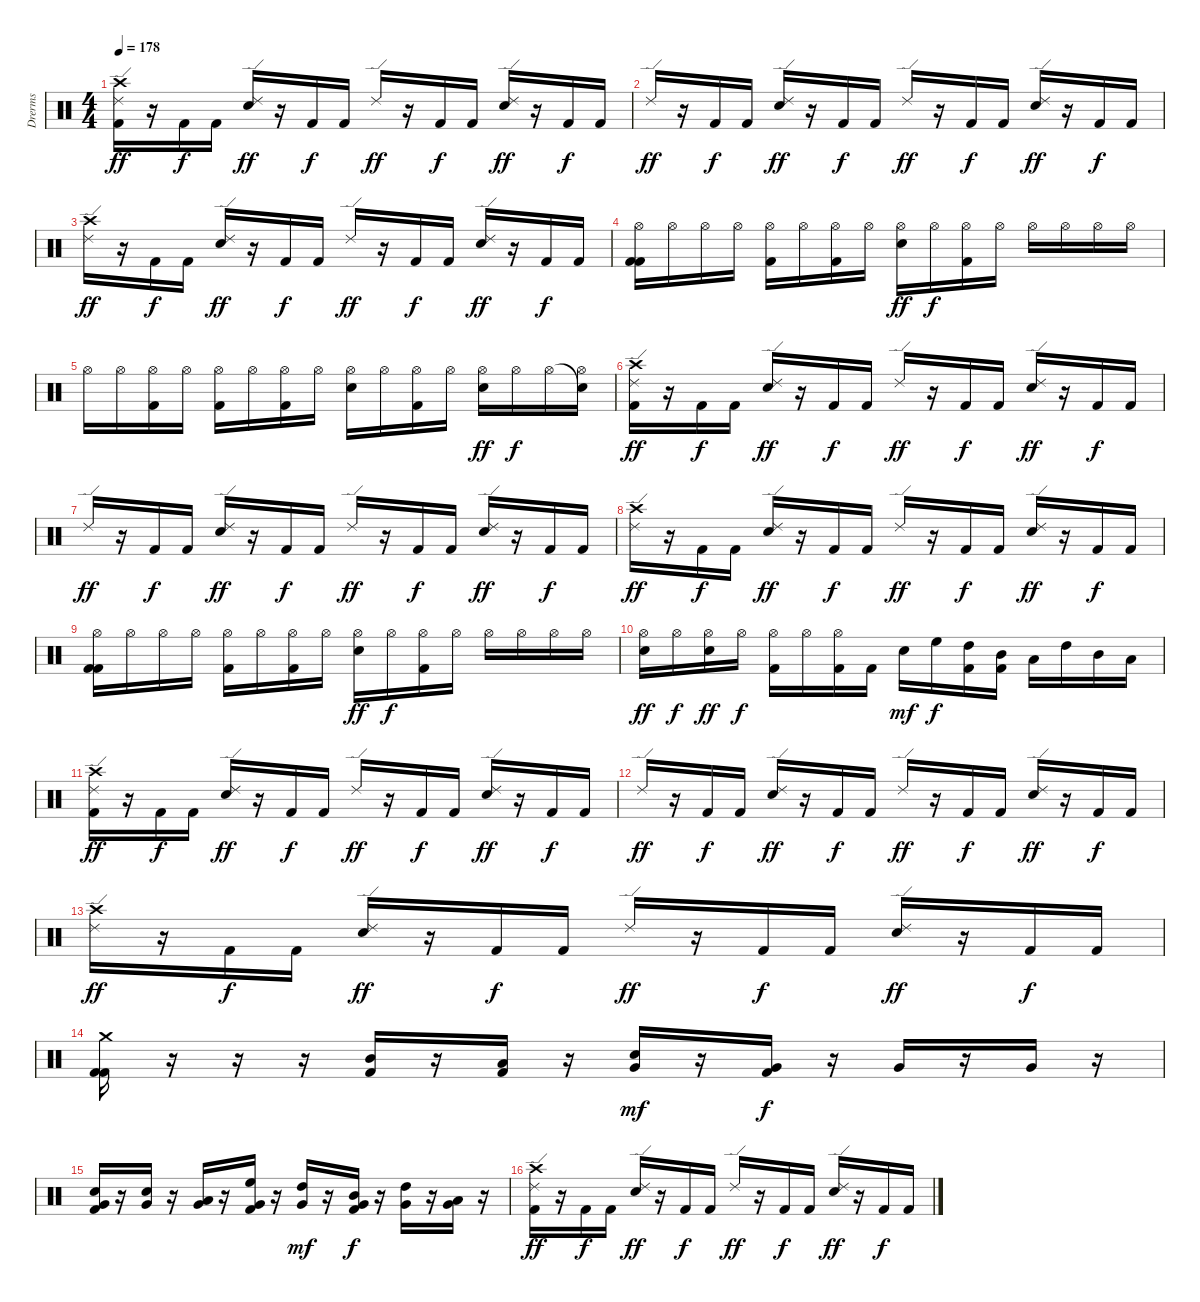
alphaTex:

\track ("Drerms" "Drerms") {instrument percussion}
\staff {score}
\articulation defaults
\ts (4 4)
\tempo 178
\clef neutral
\ks c
("Crash high (hit)" "Ride (edge) 2" "Kick (hit) 2").16{dy ff} r.16 "Kick (hit) 2".16{dy f} "Kick (hit) 2".16 ("Snare (hit) 2" "Ride (edge) 2").16{dy ff} r.16 "Kick (hit) 2".16{dy f} "Kick (hit) 2".16 "Ride (edge) 2".16{dy ff} r.16 "Kick (hit) 2".16{dy f} "Kick (hit) 2".16 ("Snare (hit) 2" "Ride (edge) 2").16{dy ff} r.16 "Kick (hit) 2".16{dy f} "Kick (hit) 2".16 |
"Ride (edge) 2".16{dy ff} r.16 "Kick (hit) 2".16{dy f} "Kick (hit) 2".16 ("Snare (hit) 2" "Ride (edge) 2").16{dy ff} r.16 "Kick (hit) 2".16{dy f} "Kick (hit) 2".16 "Ride (edge) 2".16{dy ff} r.16 "Kick (hit) 2".16{dy f} "Kick (hit) 2".16 ("Snare (hit) 2" "Ride (edge) 2").16{dy ff} r.16 "Kick (hit) 2".16{dy f} "Kick (hit) 2".16 |
("Crash high (hit)" "Ride (edge) 2").16{dy ff} r.16 "Kick (hit) 2".16{dy f} "Kick (hit) 2".16 ("Snare (hit) 2" "Ride (edge) 2").16{dy ff} r.16 "Kick (hit) 2".16{dy f} "Kick (hit) 2".16 "Ride (edge) 2".16{dy ff} r.16 "Kick (hit) 2".16{dy f} "Kick (hit) 2".16 ("Snare (hit) 2" "Ride (edge) 2").16{dy ff} r.16 "Kick (hit) 2".16{dy f} "Kick (hit) 2".16 |
("Hi-Hat (open)" "Kick (hit) 2" "Kick (hit) 2").16 "Hi-Hat (open)".16 "Hi-Hat (open)".16 "Hi-Hat (open)".16 ("Hi-Hat (open)" "Kick (hit) 2").16 "Hi-Hat (open)".16 ("Hi-Hat (open)" "Kick (hit) 2").16 "Hi-Hat (open)".16 ("Snare (hit) 2" "Hi-Hat (open)").16{dy ff} "Hi-Hat (open)".16{dy f} ("Hi-Hat (open)" "Kick (hit) 2").16 "Hi-Hat (open)".16 "Hi-Hat (open)".16 "Hi-Hat (open)".16 "Hi-Hat (open)".16 "Hi-Hat (open)".16 |
"Hi-Hat (open)".16 "Hi-Hat (open)".16 ("Hi-Hat (open)" "Kick (hit) 2").16 "Hi-Hat (open)".16 ("Hi-Hat (open)" "Kick (hit) 2").16 "Hi-Hat (open)".16 ("Hi-Hat (open)" "Kick (hit) 2").16 "Hi-Hat (open)".16 ("Snare (hit) 2" "Hi-Hat (open)").16 "Hi-Hat (open)".16 ("Hi-Hat (open)" "Kick (hit) 2").16 "Hi-Hat (open)".16 ("Snare (hit) 2" "Hi-Hat (open)").16{dy ff} "Hi-Hat (open)".16{dy f} "Hi-Hat (open)".16 ("Snare (hit)"{t} "Hi-Hat (open)").16 |
("Crash high (hit)" "Ride (edge) 2" "Kick (hit) 2").16{dy ff} r.16 "Kick (hit) 2".16{dy f} "Kick (hit) 2".16 ("Snare (hit) 2" "Ride (edge) 2").16{dy ff} r.16 "Kick (hit) 2".16{dy f} "Kick (hit) 2".16 "Ride (edge) 2".16{dy ff} r.16 "Kick (hit) 2".16{dy f} "Kick (hit) 2".16 ("Snare (hit) 2" "Ride (edge) 2").16{dy ff} r.16 "Kick (hit) 2".16{dy f} "Kick (hit) 2".16 |
"Ride (edge) 2".16{dy ff} r.16 "Kick (hit) 2".16{dy f} "Kick (hit) 2".16 ("Snare (hit) 2" "Ride (edge) 2").16{dy ff} r.16 "Kick (hit) 2".16{dy f} "Kick (hit) 2".16 "Ride (edge) 2".16{dy ff} r.16 "Kick (hit) 2".16{dy f} "Kick (hit) 2".16 ("Snare (hit) 2" "Ride (edge) 2").16{dy ff} r.16 "Kick (hit) 2".16{dy f} "Kick (hit) 2".16 |
("Crash high (hit)" "Ride (edge) 2").16{dy ff} r.16 "Kick (hit) 2".16{dy f} "Kick (hit) 2".16 ("Snare (hit) 2" "Ride (edge) 2").16{dy ff} r.16 "Kick (hit) 2".16{dy f} "Kick (hit) 2".16 "Ride (edge) 2".16{dy ff} r.16 "Kick (hit) 2".16{dy f} "Kick (hit) 2".16 ("Snare (hit) 2" "Ride (edge) 2").16{dy ff} r.16 "Kick (hit) 2".16{dy f} "Kick (hit) 2".16 |
("Hi-Hat (open)" "Kick (hit) 2" "Kick (hit) 2").16 "Hi-Hat (open)".16 "Hi-Hat (open)".16 "Hi-Hat (open)".16 ("Hi-Hat (open)" "Kick (hit) 2").16 "Hi-Hat (open)".16 ("Hi-Hat (open)" "Kick (hit) 2").16 "Hi-Hat (open)".16 ("Snare (hit) 2" "Hi-Hat (open)").16{dy ff} "Hi-Hat (open)".16{dy f} ("Hi-Hat (open)" "Kick (hit) 2").16 "Hi-Hat (open)".16 "Hi-Hat (open)".16 "Hi-Hat (open)".16 "Hi-Hat (open)".16 "Hi-Hat (open)".16 |
("Snare (hit) 2" "Hi-Hat (open)").16{dy ff} "Hi-Hat (open)".16{dy f} ("Snare (hit) 2" "Hi-Hat (open)").16{dy ff} "Hi-Hat (open)".16{dy f} ("Hi-Hat (open)" "Kick (hit) 2").16 "Hi-Hat (open)".16 ("Hi-Hat (open)" "Kick (hit) 2").16 "Kick (hit) 2".16 "Snare (hit) 2".16{dy mf} "High Floor Tom (hit)".16{dy f} ("High Tom (hit)" "Kick (hit) 2").16 ("Mid Tom (hit)" "Kick (hit) 2").16 "Low Tom (hit)".16 "High Tom (hit)".16 "Mid Tom (hit)".16 "Low Tom (hit)".16 |
("Crash high (hit)" "Ride (edge) 2" "Kick (hit) 2").16{dy ff} r.16 "Kick (hit) 2".16{dy f} "Kick (hit) 2".16 ("Snare (hit) 2" "Ride (edge) 2").16{dy ff} r.16 "Kick (hit) 2".16{dy f} "Kick (hit) 2".16 "Ride (edge) 2".16{dy ff} r.16 "Kick (hit) 2".16{dy f} "Kick (hit) 2".16 ("Snare (hit) 2" "Ride (edge) 2").16{dy ff} r.16 "Kick (hit) 2".16{dy f} "Kick (hit) 2".16 |
"Ride (edge) 2".16{dy ff} r.16 "Kick (hit) 2".16{dy f} "Kick (hit) 2".16 ("Snare (hit) 2" "Ride (edge) 2").16{dy ff} r.16 "Kick (hit) 2".16{dy f} "Kick (hit) 2".16 "Ride (edge) 2".16{dy ff} r.16 "Kick (hit) 2".16{dy f} "Kick (hit) 2".16 ("Snare (hit) 2" "Ride (edge) 2").16{dy ff} r.16 "Kick (hit) 2".16{dy f} "Kick (hit) 2".16 |
("Crash high (hit)" "Ride (edge) 2").16{dy ff} r.16 "Kick (hit) 2".16{dy f} "Kick (hit) 2".16 ("Snare (hit) 2" "Ride (edge) 2").16{dy ff} r.16 "Kick (hit) 2".16{dy f} "Kick (hit) 2".16 "Ride (edge) 2".16{dy ff} r.16 "Kick (hit) 2".16{dy f} "Kick (hit) 2".16 ("Snare (hit) 2" "Ride (edge) 2").16{dy ff} r.16 "Kick (hit) 2".16{dy f} "Kick (hit) 2".16 |
("Crash medium (hit)" "Kick (hit) 2" "Kick (hit) 2").16 r.16 r.16 r.16 ("Mid Tom (hit)" "Kick (hit) 2").16 r.16 ("Low Tom (hit)" "Kick (hit) 2").16 r.16 ("Snare (hit) 2" "Very Low Tom (hit)").16{dy mf} r.16 ("Very Low Tom (hit)" "Kick (hit) 2").16{dy f} r.16 "Very Low Tom (hit)".16 r.16 "Very Low Tom (hit)".16 r.16 |
("Snare (hit) 2" "Very Low Tom (hit)" "Kick (hit) 2").16 r.16 ("Snare (hit) 2" "Very Low Tom (hit)").16 r.16 ("Low Tom (hit)" "Very Low Tom (hit)").16 r.16 ("High Floor Tom (hit)" "Very Low Tom (hit)" "Kick (hit) 2").16 r.16 ("High Tom (hit)" "Very Low Tom (hit)").16{dy mf} r.16 ("Mid Tom (hit)" "Very Low Tom (hit)" "Kick (hit) 2").16{dy f} r.16 ("High Tom (hit)" "Very Low Tom (hit)").16 r.16 ("Low Tom (hit)" "Very Low Tom (hit)").16 r.16 |
("Crash high (hit)" "Ride (edge) 2" "Kick (hit) 2").16{dy ff} r.16 "Kick (hit) 2".16{dy f} "Kick (hit) 2".16 ("Snare (hit) 2" "Ride (edge) 2").16{dy ff} r.16 "Kick (hit) 2".16{dy f} "Kick (hit) 2".16 "Ride (edge) 2".16{dy ff} r.16 "Kick (hit) 2".16{dy f} "Kick (hit) 2".16 ("Snare (hit) 2" "Ride (edge) 2").16{dy ff} r.16 "Kick (hit) 2".16{dy f} "Kick (hit) 2".16
